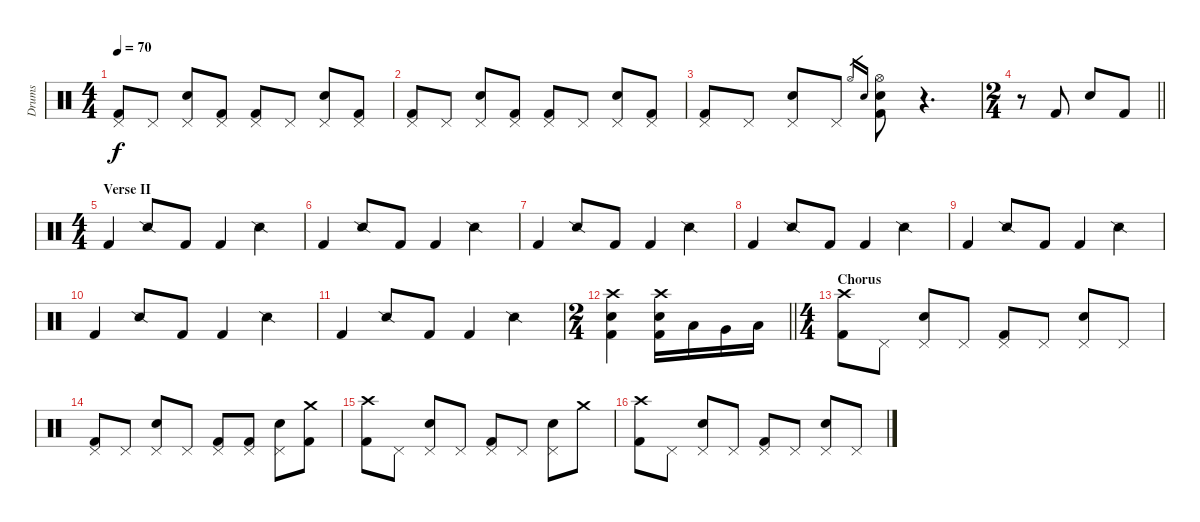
\track ("Drums" "Drums") {instrument percussion}
\staff {score}
\articulation defaults
\ts (4 4)
\tempo 70
\clef neutral
\ks c
("Pedal Hi-Hat (hit)" "Kick (hit) 2").8{dy f} "Pedal Hi-Hat (hit)".8 ("Pedal Hi-Hat (hit)" "Snare (hit) 2").8 ("Pedal Hi-Hat (hit)" "Kick (hit) 2").8 ("Pedal Hi-Hat (hit)" "Kick (hit) 2").8 "Pedal Hi-Hat (hit)".8 ("Pedal Hi-Hat (hit)" "Snare (hit) 2").8 ("Pedal Hi-Hat (hit)" "Kick (hit) 2").8 |
("Pedal Hi-Hat (hit)" "Kick (hit) 2").8 "Pedal Hi-Hat (hit)".8 ("Pedal Hi-Hat (hit)" "Snare (hit) 2").8 ("Pedal Hi-Hat (hit)" "Kick (hit) 2").8 ("Pedal Hi-Hat (hit)" "Kick (hit) 2").8 "Pedal Hi-Hat (hit)".8 ("Pedal Hi-Hat (hit)" "Snare (hit) 2").8 ("Pedal Hi-Hat (hit)" "Kick (hit) 2").8 |
("Pedal Hi-Hat (hit)" "Kick (hit) 2").8 "Pedal Hi-Hat (hit)".8 ("Pedal Hi-Hat (hit)" "Snare (hit) 2").8 "Pedal Hi-Hat (hit)".8 "Hi-Hat (open)".16{gr} "Snare (hit) 2".16{gr} ("Hi-Hat (open)" "Snare (hit) 2" "Kick (hit) 2").8 r.4{d} |
\ts (2 4)
\barLineRight lightlight
r.8 "Kick (hit) 2".8 "Snare (hit) 2".8 "Kick (hit) 2".8 |
\ts (4 4)
\section ("" "Verse II")
"Kick (hit) 2".4 "Snare (side stick) 2".8 "Kick (hit) 2".8 "Kick (hit) 2".4 "Snare (side stick) 2".4 |
"Kick (hit) 2".4 "Snare (side stick) 2".8 "Kick (hit) 2".8 "Kick (hit) 2".4 "Snare (side stick) 2".4 |
"Kick (hit) 2".4 "Snare (side stick) 2".8 "Kick (hit) 2".8 "Kick (hit) 2".4 "Snare (side stick) 2".4 |
"Kick (hit) 2".4 "Snare (side stick) 2".8 "Kick (hit) 2".8 "Kick (hit) 2".4 "Snare (side stick) 2".4 |
"Kick (hit) 2".4 "Snare (side stick) 2".8 "Kick (hit) 2".8 "Kick (hit) 2".4 "Snare (side stick) 2".4 |
"Kick (hit) 2".4 "Snare (side stick) 2".8 "Kick (hit) 2".8 "Kick (hit) 2".4 "Snare (side stick) 2".4 |
"Kick (hit) 2".4 "Snare (side stick) 2".8 "Kick (hit) 2".8 "Kick (hit) 2".4 "Snare (side stick) 2".4 |
\ts (2 4)
\barLineRight lightlight
("Crash high (hit)" "Snare (hit) 2" "Kick (hit) 2").4 ("Crash high (hit)" "Snare (hit) 2" "Kick (hit) 2").16 "Low Tom (hit)".16 "Very Low Tom (hit)".16 "Low Floor Tom (hit)".16 |
\ts (4 4)
\section ("" "Chorus")
("Crash high (hit)" "Kick (hit) 2").8 "Pedal Hi-Hat (hit)".8 ("Pedal Hi-Hat (hit)" "Snare (hit) 2").8 "Pedal Hi-Hat (hit)".8 ("Pedal Hi-Hat (hit)" "Kick (hit) 2").8 "Pedal Hi-Hat (hit)".8 ("Pedal Hi-Hat (hit)" "Snare (hit) 2").8 "Pedal Hi-Hat (hit)".8 |
("Pedal Hi-Hat (hit)" "Kick (hit) 2").8 "Pedal Hi-Hat (hit)".8 ("Pedal Hi-Hat (hit)" "Snare (hit) 2").8 "Pedal Hi-Hat (hit)".8 ("Pedal Hi-Hat (hit)" "Kick (hit) 2").8 ("Pedal Hi-Hat (hit)" "Kick (hit) 2").8 ("Pedal Hi-Hat (hit)" "Snare (hit) 2").8 ("Crash medium (hit)" "Kick (hit) 2").8 |
("Crash high (hit)" "Kick (hit) 2").8 "Pedal Hi-Hat (hit)".8 ("Pedal Hi-Hat (hit)" "Snare (hit) 2").8 "Pedal Hi-Hat (hit)".8 ("Pedal Hi-Hat (hit)" "Kick (hit) 2").8 "Pedal Hi-Hat (hit)".8 ("Pedal Hi-Hat (hit)" "Snare (hit) 2").8 "Crash medium (hit)".8 |
("Crash high (hit)" "Kick (hit) 2").8 "Pedal Hi-Hat (hit)".8 ("Pedal Hi-Hat (hit)" "Snare (hit) 2").8 "Pedal Hi-Hat (hit)".8 ("Pedal Hi-Hat (hit)" "Kick (hit) 2").8 "Pedal Hi-Hat (hit)".8 ("Pedal Hi-Hat (hit)" "Snare (hit) 2").8 "Pedal Hi-Hat (hit)".8
